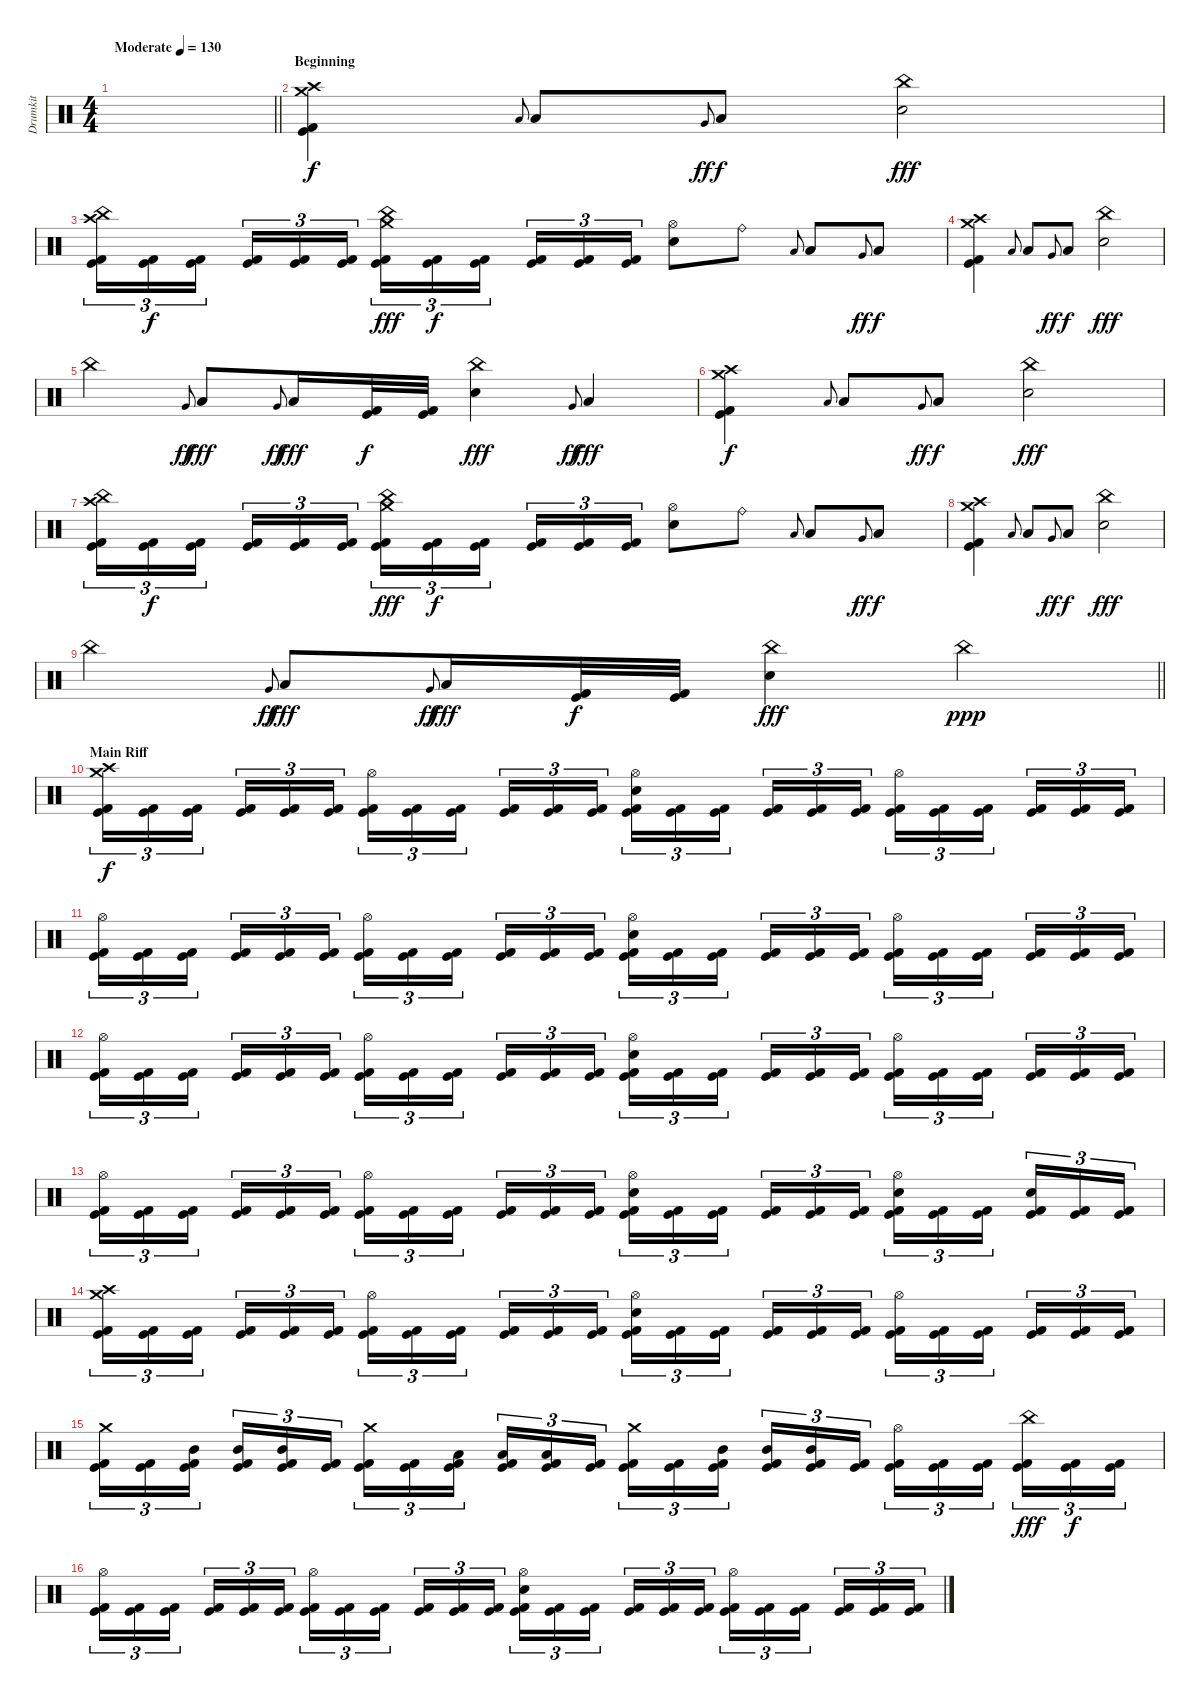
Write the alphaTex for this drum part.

\track ("Drumkit" "Drumkit") {instrument percussion}
\staff {score}
\articulation defaults
\ts (4 4)
\tempo (130 "Moderate")
\clef neutral
\barLineRight lightlight
\ks c
|
\section ("" "Beginning")
("Crash high (hit)" "Crash medium (hit)" "Kick (hit)" "Kick (hit) 2").4 "Low Tom (hit)".8{gr onbeat} "Low Floor Tom (hit)".8 "Very Low Tom (hit)".8{gr onbeat dy ff} "Low Floor Tom (hit)".8{dy f} ("China (hit)" "Electric Snare (hit)").2{dy fff} |
("Crash high (hit)" "China (hit)" "Kick (hit)" "Kick (hit) 2").16{tu (3 2)} ("Kick (hit)" "Kick (hit) 2").16{tu (3 2) dy f} ("Kick (hit)" "Kick (hit) 2").16{tu (3 2) beam splitsecondary} ("Kick (hit)" "Kick (hit) 2").16{tu (3 2)} ("Kick (hit)" "Kick (hit) 2").16{tu (3 2)} ("Kick (hit)" "Kick (hit) 2").16{tu (3 2)} ("Crash medium (hit)" "China (hit)" "Kick (hit)" "Kick (hit) 2").16{tu (3 2) dy fff} ("Kick (hit)" "Kick (hit) 2").16{tu (3 2) dy f} ("Kick (hit)" "Kick (hit) 2").16{tu (3 2) beam splitsecondary} ("Kick (hit)" "Kick (hit) 2").16{tu (3 2)} ("Kick (hit)" "Kick (hit) 2").16{tu (3 2)} ("Kick (hit)" "Kick (hit) 2").16{tu (3 2)} ("Hi-Hat (open)" "Electric Snare (hit)").8 "Ride (bell)".8 "Low Tom (hit)".8{gr onbeat} "Low Floor Tom (hit)".8 "Very Low Tom (hit)".8{gr onbeat dy ff} "Low Floor Tom (hit)".8{dy f} |
("Crash high (hit)" "Crash medium (hit)" "Kick (hit)" "Kick (hit) 2").4 "Low Tom (hit)".8{gr onbeat} "Low Floor Tom (hit)".8 "Very Low Tom (hit)".8{gr onbeat dy ff} "Low Floor Tom (hit)".8{dy f} ("China (hit)" "Electric Snare (hit)").2{dy fff} |
"China (hit)".4 "Very Low Tom (hit)".8{gr onbeat dy ff} "Low Floor Tom (hit)".8{dy fff} "Very Low Tom (hit)".8{gr onbeat dy ff} "Low Floor Tom (hit)".16{dy fff} ("Kick (hit)" "Kick (hit) 2").32{dy f} ("Kick (hit)" "Kick (hit) 2").32 ("China (hit)" "Electric Snare (hit)").4{dy fff} "Very Low Tom (hit)".8{gr onbeat dy ff} "Low Floor Tom (hit)".4{dy fff} |
("Crash high (hit)" "Crash medium (hit)" "Kick (hit)" "Kick (hit) 2").4{dy f} "Low Tom (hit)".8{gr onbeat} "Low Floor Tom (hit)".8 "Very Low Tom (hit)".8{gr onbeat dy ff} "Low Floor Tom (hit)".8{dy f} ("China (hit)" "Electric Snare (hit)").2{dy fff} |
("Crash high (hit)" "China (hit)" "Kick (hit)" "Kick (hit) 2").16{tu (3 2)} ("Kick (hit)" "Kick (hit) 2").16{tu (3 2) dy f} ("Kick (hit)" "Kick (hit) 2").16{tu (3 2) beam splitsecondary} ("Kick (hit)" "Kick (hit) 2").16{tu (3 2)} ("Kick (hit)" "Kick (hit) 2").16{tu (3 2)} ("Kick (hit)" "Kick (hit) 2").16{tu (3 2)} ("Crash medium (hit)" "China (hit)" "Kick (hit)" "Kick (hit) 2").16{tu (3 2) dy fff} ("Kick (hit)" "Kick (hit) 2").16{tu (3 2) dy f} ("Kick (hit)" "Kick (hit) 2").16{tu (3 2) beam splitsecondary} ("Kick (hit)" "Kick (hit) 2").16{tu (3 2)} ("Kick (hit)" "Kick (hit) 2").16{tu (3 2)} ("Kick (hit)" "Kick (hit) 2").16{tu (3 2)} ("Hi-Hat (open)" "Electric Snare (hit)").8 "Ride (bell)".8 "Low Tom (hit)".8{gr onbeat} "Low Floor Tom (hit)".8 "Very Low Tom (hit)".8{gr onbeat dy ff} "Low Floor Tom (hit)".8{dy f} |
("Crash high (hit)" "Crash medium (hit)" "Kick (hit)" "Kick (hit) 2").4 "Low Tom (hit)".8{gr onbeat} "Low Floor Tom (hit)".8 "Very Low Tom (hit)".8{gr onbeat dy ff} "Low Floor Tom (hit)".8{dy f} ("China (hit)" "Electric Snare (hit)").2{dy fff} |
\barLineRight lightlight "China (hit)".4 "Very Low Tom (hit)".8{gr onbeat dy ff} "Low Floor Tom (hit)".8{dy fff} "Very Low Tom (hit)".8{gr onbeat dy ff} "Low Floor Tom (hit)".16{dy fff}
("Kick (hit)" "Kick (hit) 2").32{dy f} ("Kick (hit)" "Kick (hit) 2").32 ("China (hit)" "Electric Snare (hit)").4{dy fff} "China (hit)".4{dy ppp} |
\section ("" "Main Riff")
("Crash high (hit)" "Crash medium (hit)" "Kick (hit)" "Kick (hit) 2").16{tu (3 2) dy f} ("Kick (hit)" "Kick (hit) 2").16{tu (3 2)} ("Kick (hit)" "Kick (hit) 2").16{tu (3 2) beam splitsecondary} ("Kick (hit)" "Kick (hit) 2").16{tu (3 2)} ("Kick (hit)" "Kick (hit) 2").16{tu (3 2)} ("Kick (hit)" "Kick (hit) 2").16{tu (3 2)} ("Hi-Hat (open)" "Kick (hit)" "Kick (hit) 2").16{tu (3 2)} ("Kick (hit)" "Kick (hit) 2").16{tu (3 2)} ("Kick (hit)" "Kick (hit) 2").16{tu (3 2) beam splitsecondary} ("Kick (hit)" "Kick (hit) 2").16{tu (3 2)} ("Kick (hit)" "Kick (hit) 2").16{tu (3 2)} ("Kick (hit)" "Kick (hit) 2").16{tu (3 2)} ("Hi-Hat (open)" "Electric Snare (hit)" "Kick (hit)" "Kick (hit) 2").16{tu (3 2)} ("Kick (hit)" "Kick (hit) 2").16{tu (3 2)} ("Kick (hit)" "Kick (hit) 2").16{tu (3 2) beam splitsecondary} ("Kick (hit)" "Kick (hit) 2").16{tu (3 2)} ("Kick (hit)" "Kick (hit) 2").16{tu (3 2)} ("Kick (hit)" "Kick (hit) 2").16{tu (3 2)} ("Hi-Hat (open)" "Kick (hit)" "Kick (hit) 2").16{tu (3 2)} ("Kick (hit)" "Kick (hit) 2").16{tu (3 2)} ("Kick (hit)" "Kick (hit) 2").16{tu (3 2) beam splitsecondary} ("Kick (hit)" "Kick (hit) 2").16{tu (3 2)} ("Kick (hit)" "Kick (hit) 2").16{tu (3 2)} ("Kick (hit)" "Kick (hit) 2").16{tu (3 2)} |
("Hi-Hat (open)" "Kick (hit)" "Kick (hit) 2").16{tu (3 2)} ("Kick (hit)" "Kick (hit) 2").16{tu (3 2)} ("Kick (hit)" "Kick (hit) 2").16{tu (3 2) beam splitsecondary} ("Kick (hit)" "Kick (hit) 2").16{tu (3 2)} ("Kick (hit)" "Kick (hit) 2").16{tu (3 2)} ("Kick (hit)" "Kick (hit) 2").16{tu (3 2)} ("Hi-Hat (open)" "Kick (hit)" "Kick (hit) 2").16{tu (3 2)} ("Kick (hit)" "Kick (hit) 2").16{tu (3 2)} ("Kick (hit)" "Kick (hit) 2").16{tu (3 2) beam splitsecondary} ("Kick (hit)" "Kick (hit) 2").16{tu (3 2)} ("Kick (hit)" "Kick (hit) 2").16{tu (3 2)} ("Kick (hit)" "Kick (hit) 2").16{tu (3 2)} ("Hi-Hat (open)" "Electric Snare (hit)" "Kick (hit)" "Kick (hit) 2").16{tu (3 2)} ("Kick (hit)" "Kick (hit) 2").16{tu (3 2)} ("Kick (hit)" "Kick (hit) 2").16{tu (3 2) beam splitsecondary} ("Kick (hit)" "Kick (hit) 2").16{tu (3 2)} ("Kick (hit)" "Kick (hit) 2").16{tu (3 2)} ("Kick (hit)" "Kick (hit) 2").16{tu (3 2)} ("Hi-Hat (open)" "Kick (hit)" "Kick (hit) 2").16{tu (3 2)} ("Kick (hit)" "Kick (hit) 2").16{tu (3 2)} ("Kick (hit)" "Kick (hit) 2").16{tu (3 2) beam splitsecondary} ("Kick (hit)" "Kick (hit) 2").16{tu (3 2)} ("Kick (hit)" "Kick (hit) 2").16{tu (3 2)} ("Kick (hit)" "Kick (hit) 2").16{tu (3 2)} |
("Hi-Hat (open)" "Kick (hit)" "Kick (hit) 2").16{tu (3 2)} ("Kick (hit)" "Kick (hit) 2").16{tu (3 2)} ("Kick (hit)" "Kick (hit) 2").16{tu (3 2) beam splitsecondary} ("Kick (hit)" "Kick (hit) 2").16{tu (3 2)} ("Kick (hit)" "Kick (hit) 2").16{tu (3 2)} ("Kick (hit)" "Kick (hit) 2").16{tu (3 2)} ("Hi-Hat (open)" "Kick (hit)" "Kick (hit) 2").16{tu (3 2)} ("Kick (hit)" "Kick (hit) 2").16{tu (3 2)} ("Kick (hit)" "Kick (hit) 2").16{tu (3 2) beam splitsecondary} ("Kick (hit)" "Kick (hit) 2").16{tu (3 2)} ("Kick (hit)" "Kick (hit) 2").16{tu (3 2)} ("Kick (hit)" "Kick (hit) 2").16{tu (3 2)} ("Hi-Hat (open)" "Electric Snare (hit)" "Kick (hit)" "Kick (hit) 2").16{tu (3 2)} ("Kick (hit)" "Kick (hit) 2").16{tu (3 2)} ("Kick (hit)" "Kick (hit) 2").16{tu (3 2) beam splitsecondary} ("Kick (hit)" "Kick (hit) 2").16{tu (3 2)} ("Kick (hit)" "Kick (hit) 2").16{tu (3 2)} ("Kick (hit)" "Kick (hit) 2").16{tu (3 2)} ("Hi-Hat (open)" "Kick (hit)" "Kick (hit) 2").16{tu (3 2)} ("Kick (hit)" "Kick (hit) 2").16{tu (3 2)} ("Kick (hit)" "Kick (hit) 2").16{tu (3 2) beam splitsecondary} ("Kick (hit)" "Kick (hit) 2").16{tu (3 2)} ("Kick (hit)" "Kick (hit) 2").16{tu (3 2)} ("Kick (hit)" "Kick (hit) 2").16{tu (3 2)} |
("Hi-Hat (open)" "Kick (hit)" "Kick (hit) 2").16{tu (3 2)} ("Kick (hit)" "Kick (hit) 2").16{tu (3 2)} ("Kick (hit)" "Kick (hit) 2").16{tu (3 2) beam splitsecondary} ("Kick (hit)" "Kick (hit) 2").16{tu (3 2)} ("Kick (hit)" "Kick (hit) 2").16{tu (3 2)} ("Kick (hit)" "Kick (hit) 2").16{tu (3 2)} ("Hi-Hat (open)" "Kick (hit)" "Kick (hit) 2").16{tu (3 2)} ("Kick (hit)" "Kick (hit) 2").16{tu (3 2)} ("Kick (hit)" "Kick (hit) 2").16{tu (3 2) beam splitsecondary} ("Kick (hit)" "Kick (hit) 2").16{tu (3 2)} ("Kick (hit)" "Kick (hit) 2").16{tu (3 2)} ("Kick (hit)" "Kick (hit) 2").16{tu (3 2)} ("Hi-Hat (open)" "Electric Snare (hit)" "Kick (hit)" "Kick (hit) 2").16{tu (3 2)} ("Kick (hit)" "Kick (hit) 2").16{tu (3 2)} ("Kick (hit)" "Kick (hit) 2").16{tu (3 2) beam splitsecondary} ("Kick (hit)" "Kick (hit) 2").16{tu (3 2)} ("Kick (hit)" "Kick (hit) 2").16{tu (3 2)} ("Kick (hit)" "Kick (hit) 2").16{tu (3 2)} ("Hi-Hat (open)" "Electric Snare (hit)" "Kick (hit)" "Kick (hit) 2").16{tu (3 2)} ("Kick (hit)" "Kick (hit) 2").16{tu (3 2)} ("Kick (hit)" "Kick (hit) 2").16{tu (3 2) beam splitsecondary} ("Electric Snare (hit)" "Kick (hit)" "Kick (hit) 2").16{tu (3 2)} ("Kick (hit)" "Kick (hit) 2").16{tu (3 2)} ("Kick (hit)" "Kick (hit) 2").16{tu (3 2)} |
("Crash high (hit)" "Crash medium (hit)" "Kick (hit)" "Kick (hit) 2").16{tu (3 2)} ("Kick (hit)" "Kick (hit) 2").16{tu (3 2)} ("Kick (hit)" "Kick (hit) 2").16{tu (3 2) beam splitsecondary} ("Kick (hit)" "Kick (hit) 2").16{tu (3 2)} ("Kick (hit)" "Kick (hit) 2").16{tu (3 2)} ("Kick (hit)" "Kick (hit) 2").16{tu (3 2)} ("Hi-Hat (open)" "Kick (hit)" "Kick (hit) 2").16{tu (3 2)} ("Kick (hit)" "Kick (hit) 2").16{tu (3 2)} ("Kick (hit)" "Kick (hit) 2").16{tu (3 2) beam splitsecondary} ("Kick (hit)" "Kick (hit) 2").16{tu (3 2)} ("Kick (hit)" "Kick (hit) 2").16{tu (3 2)} ("Kick (hit)" "Kick (hit) 2").16{tu (3 2)} ("Hi-Hat (open)" "Electric Snare (hit)" "Kick (hit)" "Kick (hit) 2").16{tu (3 2)} ("Kick (hit)" "Kick (hit) 2").16{tu (3 2)} ("Kick (hit)" "Kick (hit) 2").16{tu (3 2) beam splitsecondary} ("Kick (hit)" "Kick (hit) 2").16{tu (3 2)} ("Kick (hit)" "Kick (hit) 2").16{tu (3 2)} ("Kick (hit)" "Kick (hit) 2").16{tu (3 2)} ("Hi-Hat (open)" "Kick (hit)" "Kick (hit) 2").16{tu (3 2)} ("Kick (hit)" "Kick (hit) 2").16{tu (3 2)} ("Kick (hit)" "Kick (hit) 2").16{tu (3 2) beam splitsecondary} ("Kick (hit)" "Kick (hit) 2").16{tu (3 2)} ("Kick (hit)" "Kick (hit) 2").16{tu (3 2)} ("Kick (hit)" "Kick (hit) 2").16{tu (3 2)} |
("Crash medium (hit)" "Kick (hit)" "Kick (hit) 2").16{tu (3 2)} ("Kick (hit)" "Kick (hit) 2").16{tu (3 2)} ("Mid Tom (hit)" "Kick (hit)" "Kick (hit) 2").16{tu (3 2) beam splitsecondary} ("Mid Tom (hit)" "Kick (hit)" "Kick (hit) 2").16{tu (3 2)} ("Mid Tom (hit)" "Kick (hit)" "Kick (hit) 2").16{tu (3 2)} ("Kick (hit)" "Kick (hit) 2").16{tu (3 2)} ("Crash medium (hit)" "Kick (hit)" "Kick (hit) 2").16{tu (3 2)} ("Kick (hit)" "Kick (hit) 2").16{tu (3 2)} ("Low Tom (hit)" "Kick (hit)" "Kick (hit) 2").16{tu (3 2) beam splitsecondary} ("Low Tom (hit)" "Kick (hit)" "Kick (hit) 2").16{tu (3 2)} ("Low Tom (hit)" "Kick (hit)" "Kick (hit) 2").16{tu (3 2)} ("Kick (hit)" "Kick (hit) 2").16{tu (3 2)} ("Crash medium (hit)" "Kick (hit)" "Kick (hit) 2").16{tu (3 2)} ("Kick (hit)" "Kick (hit) 2").16{tu (3 2)} ("Mid Tom (hit)" "Kick (hit)" "Kick (hit) 2").16{tu (3 2) beam splitsecondary} ("Mid Tom (hit)" "Kick (hit)" "Kick (hit) 2").16{tu (3 2)} ("Mid Tom (hit)" "Kick (hit)" "Kick (hit) 2").16{tu (3 2)} ("Kick (hit)" "Kick (hit) 2").16{tu (3 2)} ("Hi-Hat (open)" "Kick (hit)" "Kick (hit) 2").16{tu (3 2)} ("Kick (hit)" "Kick (hit) 2").16{tu (3 2)} ("Kick (hit)" "Kick (hit) 2").16{tu (3 2) beam splitsecondary} ("China (hit)" "Kick (hit)" "Kick (hit) 2").16{tu (3 2) dy fff} ("Kick (hit)" "Kick (hit) 2").16{tu (3 2) dy f} ("Kick (hit)" "Kick (hit) 2").16{tu (3 2)} |
("Hi-Hat (open)" "Kick (hit)" "Kick (hit) 2").16{tu (3 2)} ("Kick (hit)" "Kick (hit) 2").16{tu (3 2)} ("Kick (hit)" "Kick (hit) 2").16{tu (3 2) beam splitsecondary} ("Kick (hit)" "Kick (hit) 2").16{tu (3 2)} ("Kick (hit)" "Kick (hit) 2").16{tu (3 2)} ("Kick (hit)" "Kick (hit) 2").16{tu (3 2)} ("Hi-Hat (open)" "Kick (hit)" "Kick (hit) 2").16{tu (3 2)} ("Kick (hit)" "Kick (hit) 2").16{tu (3 2)} ("Kick (hit)" "Kick (hit) 2").16{tu (3 2) beam splitsecondary} ("Kick (hit)" "Kick (hit) 2").16{tu (3 2)} ("Kick (hit)" "Kick (hit) 2").16{tu (3 2)} ("Kick (hit)" "Kick (hit) 2").16{tu (3 2)} ("Hi-Hat (open)" "Electric Snare (hit)" "Kick (hit)" "Kick (hit) 2").16{tu (3 2)} ("Kick (hit)" "Kick (hit) 2").16{tu (3 2)} ("Kick (hit)" "Kick (hit) 2").16{tu (3 2) beam splitsecondary} ("Kick (hit)" "Kick (hit) 2").16{tu (3 2)} ("Kick (hit)" "Kick (hit) 2").16{tu (3 2)} ("Kick (hit)" "Kick (hit) 2").16{tu (3 2)} ("Hi-Hat (open)" "Kick (hit)" "Kick (hit) 2").16{tu (3 2)} ("Kick (hit)" "Kick (hit) 2").16{tu (3 2)} ("Kick (hit)" "Kick (hit) 2").16{tu (3 2) beam splitsecondary} ("Kick (hit)" "Kick (hit) 2").16{tu (3 2)} ("Kick (hit)" "Kick (hit) 2").16{tu (3 2)} ("Kick (hit)" "Kick (hit) 2").16{tu (3 2)}
